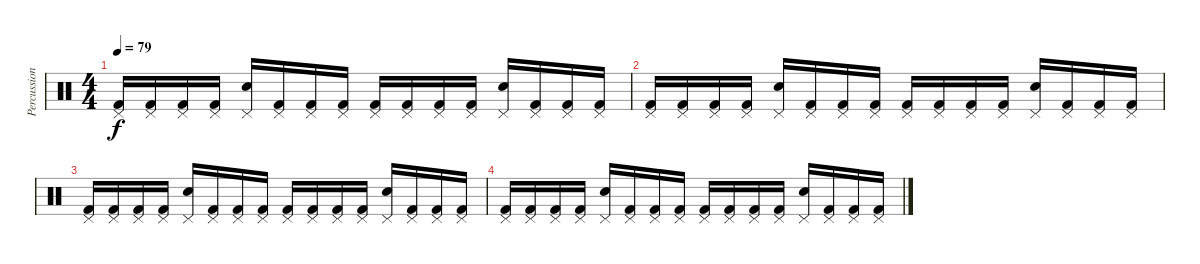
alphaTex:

\track ("Percussion" "Percussion") {instrument percussion}
\staff {score}
\articulation defaults
\ts (4 4)
\tempo 79
\clef neutral
\ks c
("Pedal Hi-Hat (hit)" "Kick (hit) 2").16{dy f} ("Pedal Hi-Hat (hit)" "Kick (hit) 2").16 ("Pedal Hi-Hat (hit)" "Kick (hit) 2").16 ("Pedal Hi-Hat (hit)" "Kick (hit) 2").16 ("Pedal Hi-Hat (hit)" "Electric Snare (hit)").16 ("Pedal Hi-Hat (hit)" "Kick (hit) 2").16 ("Pedal Hi-Hat (hit)" "Kick (hit) 2").16 ("Pedal Hi-Hat (hit)" "Kick (hit) 2").16 ("Pedal Hi-Hat (hit)" "Kick (hit) 2").16 ("Pedal Hi-Hat (hit)" "Kick (hit) 2").16 ("Pedal Hi-Hat (hit)" "Kick (hit) 2").16 ("Pedal Hi-Hat (hit)" "Kick (hit) 2").16 ("Pedal Hi-Hat (hit)" "Electric Snare (hit)").16 ("Pedal Hi-Hat (hit)" "Kick (hit) 2").16 ("Pedal Hi-Hat (hit)" "Kick (hit) 2").16 ("Pedal Hi-Hat (hit)" "Kick (hit) 2").16 |
("Pedal Hi-Hat (hit)" "Kick (hit) 2").16 ("Pedal Hi-Hat (hit)" "Kick (hit) 2").16 ("Pedal Hi-Hat (hit)" "Kick (hit) 2").16 ("Pedal Hi-Hat (hit)" "Kick (hit) 2").16 ("Pedal Hi-Hat (hit)" "Electric Snare (hit)").16 ("Pedal Hi-Hat (hit)" "Kick (hit) 2").16 ("Pedal Hi-Hat (hit)" "Kick (hit) 2").16 ("Pedal Hi-Hat (hit)" "Kick (hit) 2").16 ("Pedal Hi-Hat (hit)" "Kick (hit) 2").16 ("Pedal Hi-Hat (hit)" "Kick (hit) 2").16 ("Pedal Hi-Hat (hit)" "Kick (hit) 2").16 ("Pedal Hi-Hat (hit)" "Kick (hit) 2").16 ("Pedal Hi-Hat (hit)" "Electric Snare (hit)").16 ("Pedal Hi-Hat (hit)" "Kick (hit) 2").16 ("Pedal Hi-Hat (hit)" "Kick (hit) 2").16 ("Pedal Hi-Hat (hit)" "Kick (hit) 2").16 |
("Pedal Hi-Hat (hit)" "Kick (hit) 2").16 ("Pedal Hi-Hat (hit)" "Kick (hit) 2").16 ("Pedal Hi-Hat (hit)" "Kick (hit) 2").16 ("Pedal Hi-Hat (hit)" "Kick (hit) 2").16 ("Pedal Hi-Hat (hit)" "Electric Snare (hit)").16 ("Pedal Hi-Hat (hit)" "Kick (hit) 2").16 ("Pedal Hi-Hat (hit)" "Kick (hit) 2").16 ("Pedal Hi-Hat (hit)" "Kick (hit) 2").16 ("Pedal Hi-Hat (hit)" "Kick (hit) 2").16 ("Pedal Hi-Hat (hit)" "Kick (hit) 2").16 ("Pedal Hi-Hat (hit)" "Kick (hit) 2").16 ("Pedal Hi-Hat (hit)" "Kick (hit) 2").16 ("Pedal Hi-Hat (hit)" "Electric Snare (hit)").16 ("Pedal Hi-Hat (hit)" "Kick (hit) 2").16 ("Pedal Hi-Hat (hit)" "Kick (hit) 2").16 ("Pedal Hi-Hat (hit)" "Kick (hit) 2").16 |
("Pedal Hi-Hat (hit)" "Kick (hit) 2").16 ("Pedal Hi-Hat (hit)" "Kick (hit) 2").16 ("Pedal Hi-Hat (hit)" "Kick (hit) 2").16 ("Pedal Hi-Hat (hit)" "Kick (hit) 2").16 ("Pedal Hi-Hat (hit)" "Electric Snare (hit)").16 ("Pedal Hi-Hat (hit)" "Kick (hit) 2").16 ("Pedal Hi-Hat (hit)" "Kick (hit) 2").16 ("Pedal Hi-Hat (hit)" "Kick (hit) 2").16 ("Pedal Hi-Hat (hit)" "Kick (hit) 2").16 ("Pedal Hi-Hat (hit)" "Kick (hit) 2").16 ("Pedal Hi-Hat (hit)" "Kick (hit) 2").16 ("Pedal Hi-Hat (hit)" "Kick (hit) 2").16 ("Pedal Hi-Hat (hit)" "Electric Snare (hit)").16 ("Pedal Hi-Hat (hit)" "Kick (hit) 2").16 ("Pedal Hi-Hat (hit)" "Kick (hit) 2").16 ("Pedal Hi-Hat (hit)" "Kick (hit) 2").16
